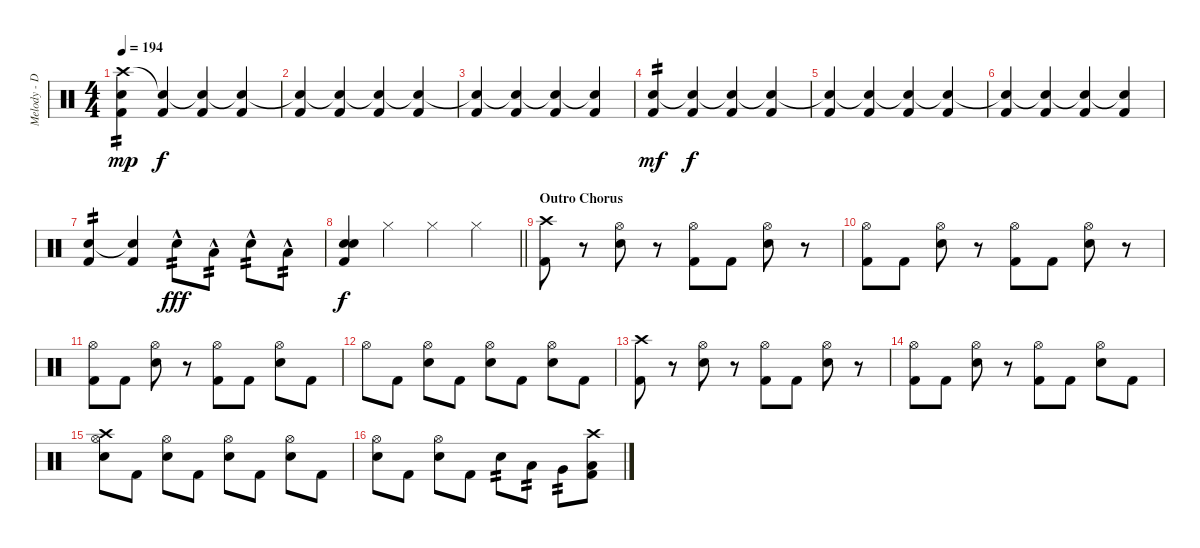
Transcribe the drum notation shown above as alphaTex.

\track ("Melody - Drums" "Melody - D") {instrument percussion}
\staff {score}
\articulation defaults
\ts (4 4)
\tempo 194
\clef neutral
\ks c
("Crash high (hit)" "Electric Snare (hit)" "Kick (hit) 2").4{tp 2 dy mp} ("Snare (hit)"{t} "Kick (hit) 2").4{dy f} ("Snare (hit)"{t} "Kick (hit) 2").4 ("Snare (hit)"{t} "Kick (hit) 2").4 |
("Snare (hit)"{t} "Kick (hit) 2").4 ("Snare (hit)"{t} "Kick (hit) 2").4 ("Snare (hit)"{t} "Kick (hit) 2").4 ("Snare (hit)"{t} "Kick (hit) 2").4 |
("Snare (hit)"{t} "Kick (hit) 2").4 ("Snare (hit)"{t} "Kick (hit) 2").4 ("Snare (hit)"{t} "Kick (hit) 2").4 ("Snare (hit)"{t} "Kick (hit) 2").4 |
("Electric Snare (hit)" "Kick (hit) 2").4{tp 2 dy mf} ("Snare (hit)"{t} "Kick (hit) 2").4{dy f} ("Snare (hit)"{t} "Kick (hit) 2").4 ("Snare (hit)"{t} "Kick (hit) 2").4 |
("Snare (hit)"{t} "Kick (hit) 2").4 ("Snare (hit)"{t} "Kick (hit) 2").4 ("Snare (hit)"{t} "Kick (hit) 2").4 ("Snare (hit)"{t} "Kick (hit) 2").4 |
("Snare (hit)"{t} "Kick (hit) 2").4 ("Snare (hit)"{t} "Kick (hit) 2").4 ("Snare (hit)"{t} "Kick (hit) 2").4 ("Snare (hit)"{t} "Kick (hit) 2").4 |
("Electric Snare (hit)" "Kick (hit) 2").4{tp 2} ("Snare (hit)"{t} "Kick (hit) 2").4 "Electric Snare (hit)"{hac}.8{tp 2 dy fff} "Low Tom (hit)"{hac}.8{tp 2} "Electric Snare (hit)"{hac}.8{tp 2} "Low Tom (hit)"{hac}.8{tp 2} |
\barLineRight lightlight
("Electric Snare (hit)" "Electric Snare (hit)" "Kick (hit) 2").4{dy f} "Hi-Hat (closed)".4 "Hi-Hat (closed)".4 "Hi-Hat (closed)".4 |
\section ("" "Outro Chorus")
("Crash high (hit)" "Kick (hit) 2").8 r.8 ("Hi-Hat (open)" "Electric Snare (hit)").8 r.8 ("Hi-Hat (open)" "Kick (hit) 2").8 "Kick (hit) 2".8 ("Hi-Hat (open)" "Electric Snare (hit)").8 r.8 |
("Hi-Hat (open)" "Kick (hit) 2").8 "Kick (hit) 2".8 ("Hi-Hat (open)" "Electric Snare (hit)").8 r.8 ("Hi-Hat (open)" "Kick (hit) 2").8 "Kick (hit) 2".8 ("Hi-Hat (open)" "Electric Snare (hit)").8 r.8 |
("Hi-Hat (open)" "Kick (hit) 2").8 "Kick (hit) 2".8 ("Hi-Hat (open)" "Electric Snare (hit)").8 r.8 ("Hi-Hat (open)" "Kick (hit) 2").8 "Kick (hit) 2".8 ("Hi-Hat (open)" "Electric Snare (hit)").8 "Kick (hit) 2".8 |
"Hi-Hat (open)".8 "Kick (hit) 2".8 ("Hi-Hat (open)" "Electric Snare (hit)").8 "Kick (hit) 2".8 ("Hi-Hat (open)" "Electric Snare (hit)").8 "Kick (hit) 2".8 ("Hi-Hat (open)" "Electric Snare (hit)").8 "Kick (hit) 2".8 |
("Crash high (hit)" "Kick (hit) 2").8 r.8 ("Hi-Hat (open)" "Electric Snare (hit)").8 r.8 ("Hi-Hat (open)" "Kick (hit) 2").8 "Kick (hit) 2".8 ("Hi-Hat (open)" "Electric Snare (hit)").8 r.8 |
("Hi-Hat (open)" "Kick (hit) 2").8 "Kick (hit) 2".8 ("Hi-Hat (open)" "Electric Snare (hit)").8 r.8 ("Hi-Hat (open)" "Kick (hit) 2").8 "Kick (hit) 2".8 ("Hi-Hat (open)" "Electric Snare (hit)").8 "Kick (hit) 2".8 |
("Crash high (hit)" "Hi-Hat (open)" "Electric Snare (hit)").8 "Kick (hit) 2".8 ("Hi-Hat (open)" "Electric Snare (hit)").8 "Kick (hit) 2".8 ("Hi-Hat (open)" "Electric Snare (hit)").8 "Kick (hit) 2".8 ("Hi-Hat (open)" "Electric Snare (hit)").8 "Kick (hit) 2".8 |
("Hi-Hat (open)" "Electric Snare (hit)").8 "Kick (hit) 2".8 ("Hi-Hat (open)" "Electric Snare (hit)").8 "Kick (hit) 2".8 "Electric Snare (hit)".8{tp 2} "Low Tom (hit)".8{tp 2} "Very Low Tom (hit)".8{tp 2} ("Crash high (hit)" "Low Floor Tom (hit)" "Kick (hit) 2").8
